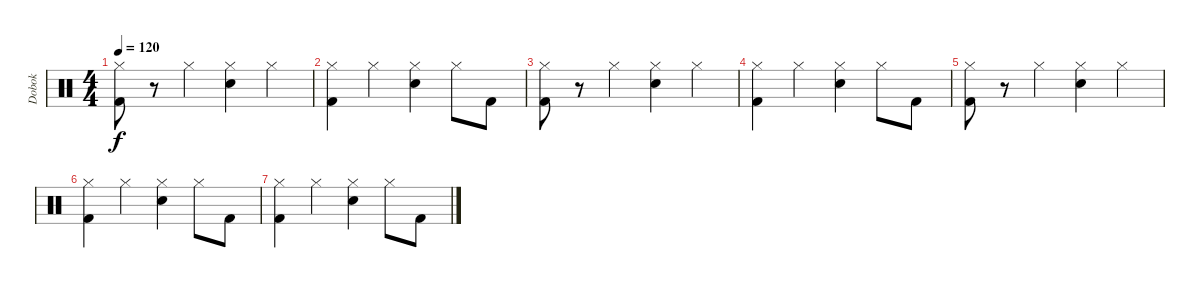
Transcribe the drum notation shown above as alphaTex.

\track ("Dobok" "Dobok") {instrument percussion}
\staff {score}
\articulation defaults
\ts (4 4)
\tempo 120
\clef neutral
\ks c
("Hi-Hat (closed)" "Kick (hit) 2").8{dy f} r.8 "Hi-Hat (closed)".4 ("Hi-Hat (closed)" "Snare (hit) 2").4 "Hi-Hat (closed)".4 |
("Hi-Hat (closed)" "Kick (hit) 2").4 "Hi-Hat (closed)".4 ("Hi-Hat (closed)" "Snare (hit) 2").4 "Hi-Hat (closed)".8 "Kick (hit) 2".8 |
("Hi-Hat (closed)" "Kick (hit) 2").8 r.8 "Hi-Hat (closed)".4 ("Hi-Hat (closed)" "Snare (hit) 2").4 "Hi-Hat (closed)".4 |
("Hi-Hat (closed)" "Kick (hit) 2").4 "Hi-Hat (closed)".4 ("Hi-Hat (closed)" "Snare (hit) 2").4 "Hi-Hat (closed)".8 "Kick (hit) 2".8 |
("Hi-Hat (closed)" "Kick (hit) 2").8 r.8 "Hi-Hat (closed)".4 ("Hi-Hat (closed)" "Snare (hit) 2").4 "Hi-Hat (closed)".4 |
("Hi-Hat (closed)" "Kick (hit) 2").4 "Hi-Hat (closed)".4 ("Hi-Hat (closed)" "Snare (hit) 2").4 "Hi-Hat (closed)".8 "Kick (hit) 2".8 |
("Hi-Hat (closed)" "Kick (hit) 2").4 "Hi-Hat (closed)".4 ("Hi-Hat (closed)" "Snare (hit) 2").4 "Hi-Hat (closed)".8 "Kick (hit) 2".8
